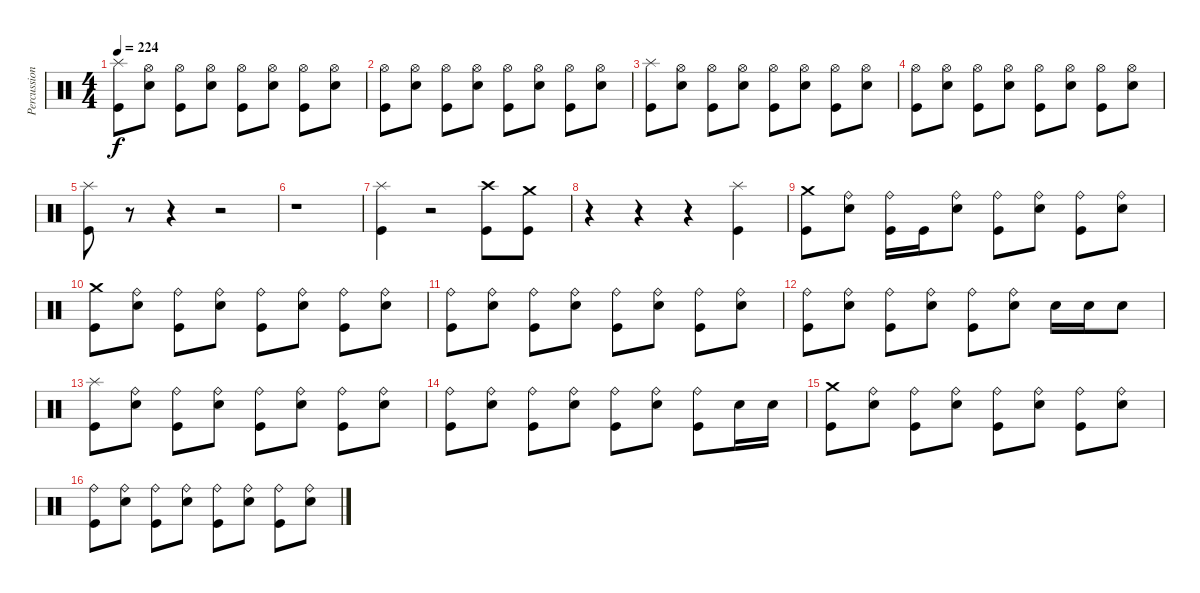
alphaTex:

\track ("Percussions" "Percussion") {instrument percussion}
\staff {score}
\articulation defaults
\ts (4 4)
\tempo 224
\clef neutral
\ks c
("Kick (hit)" "Splash (hit)").8{dy f} ("Electric Snare (hit)" "Hi-Hat (open)").8 ("Kick (hit)" "Hi-Hat (open)").8 ("Electric Snare (hit)" "Hi-Hat (open)").8 ("Kick (hit)" "Hi-Hat (open)").8 ("Electric Snare (hit)" "Hi-Hat (open)").8 ("Kick (hit)" "Hi-Hat (open)").8 ("Electric Snare (hit)" "Hi-Hat (open)").8 |
("Kick (hit)" "Hi-Hat (open)").8 ("Electric Snare (hit)" "Hi-Hat (open)").8 ("Kick (hit)" "Hi-Hat (open)").8 ("Electric Snare (hit)" "Hi-Hat (open)").8 ("Kick (hit)" "Hi-Hat (open)").8 ("Electric Snare (hit)" "Hi-Hat (open)").8 ("Kick (hit)" "Hi-Hat (open)").8 ("Electric Snare (hit)" "Hi-Hat (open)").8 |
("Kick (hit)" "Splash (hit)").8 ("Electric Snare (hit)" "Hi-Hat (open)").8 ("Kick (hit)" "Hi-Hat (open)").8 ("Electric Snare (hit)" "Hi-Hat (open)").8 ("Kick (hit)" "Hi-Hat (open)").8 ("Electric Snare (hit)" "Hi-Hat (open)").8 ("Kick (hit)" "Hi-Hat (open)").8 ("Electric Snare (hit)" "Hi-Hat (open)").8 |
("Kick (hit)" "Hi-Hat (open)").8 ("Electric Snare (hit)" "Hi-Hat (open)").8 ("Kick (hit)" "Hi-Hat (open)").8 ("Electric Snare (hit)" "Hi-Hat (open)").8 ("Kick (hit)" "Hi-Hat (open)").8 ("Electric Snare (hit)" "Hi-Hat (open)").8 ("Kick (hit)" "Hi-Hat (open)").8 ("Electric Snare (hit)" "Hi-Hat (open)").8 |
("Kick (hit)" "Splash (hit)").8 r.8 r.4 r.2 |
r.1 |
("Kick (hit)" "Splash (hit)").4 r.2 ("Kick (hit)" "Crash high (hit)").8 ("Kick (hit)" "Crash medium (hit)").8 |
r.4 r.4 r.4 ("Kick (hit)" "Splash (hit)").4 |
("Kick (hit)" "Crash medium (hit)").8 ("Electric Snare (hit)" "Ride (bell)").8 ("Kick (hit)" "Ride (bell)").16 "Kick (hit)".16 ("Electric Snare (hit)" "Ride (bell)").8 ("Kick (hit)" "Ride (bell)").8 ("Electric Snare (hit)" "Ride (bell)").8 ("Kick (hit)" "Ride (bell)").8 ("Electric Snare (hit)" "Ride (bell)").8 |
("Kick (hit)" "Crash medium (hit)").8 ("Electric Snare (hit)" "Ride (bell)").8 ("Kick (hit)" "Ride (bell)").8 ("Electric Snare (hit)" "Ride (bell)").8 ("Kick (hit)" "Ride (bell)").8 ("Electric Snare (hit)" "Ride (bell)").8 ("Kick (hit)" "Ride (bell)").8 ("Electric Snare (hit)" "Ride (bell)").8 |
("Kick (hit)" "Ride (bell)").8 ("Electric Snare (hit)" "Ride (bell)").8 ("Kick (hit)" "Ride (bell)").8 ("Electric Snare (hit)" "Ride (bell)").8 ("Kick (hit)" "Ride (bell)").8 ("Electric Snare (hit)" "Ride (bell)").8 ("Kick (hit)" "Ride (bell)").8 ("Electric Snare (hit)" "Ride (bell)").8 |
("Kick (hit)" "Ride (bell)").8 ("Electric Snare (hit)" "Ride (bell)").8 ("Kick (hit)" "Ride (bell)").8 ("Electric Snare (hit)" "Ride (bell)").8 ("Kick (hit)" "Ride (bell)").8 ("Electric Snare (hit)" "Ride (bell)").8 "Electric Snare (hit)".16 "Electric Snare (hit)".16 "Electric Snare (hit)".8 |
("Kick (hit)" "Splash (hit)").8 ("Electric Snare (hit)" "Ride (bell)").8 ("Kick (hit)" "Ride (bell)").8 ("Electric Snare (hit)" "Ride (bell)").8 ("Kick (hit)" "Ride (bell)").8 ("Electric Snare (hit)" "Ride (bell)").8 ("Kick (hit)" "Ride (bell)").8 ("Electric Snare (hit)" "Ride (bell)").8 |
("Kick (hit)" "Ride (bell)").8 ("Electric Snare (hit)" "Ride (bell)").8 ("Kick (hit)" "Ride (bell)").8 ("Electric Snare (hit)" "Ride (bell)").8 ("Kick (hit)" "Ride (bell)").8 ("Electric Snare (hit)" "Ride (bell)").8 ("Kick (hit)" "Ride (bell)").8 "Electric Snare (hit)".16 "Electric Snare (hit)".16 |
("Kick (hit)" "Crash medium (hit)").8 ("Electric Snare (hit)" "Ride (bell)").8 ("Kick (hit)" "Ride (bell)").8 ("Electric Snare (hit)" "Ride (bell)").8 ("Kick (hit)" "Ride (bell)").8 ("Electric Snare (hit)" "Ride (bell)").8 ("Kick (hit)" "Ride (bell)").8 ("Electric Snare (hit)" "Ride (bell)").8 |
("Kick (hit)" "Ride (bell)").8 ("Electric Snare (hit)" "Ride (bell)").8 ("Kick (hit)" "Ride (bell)").8 ("Electric Snare (hit)" "Ride (bell)").8 ("Kick (hit)" "Ride (bell)").8 ("Electric Snare (hit)" "Ride (bell)").8 ("Kick (hit)" "Ride (bell)").8 ("Electric Snare (hit)" "Ride (bell)").8
